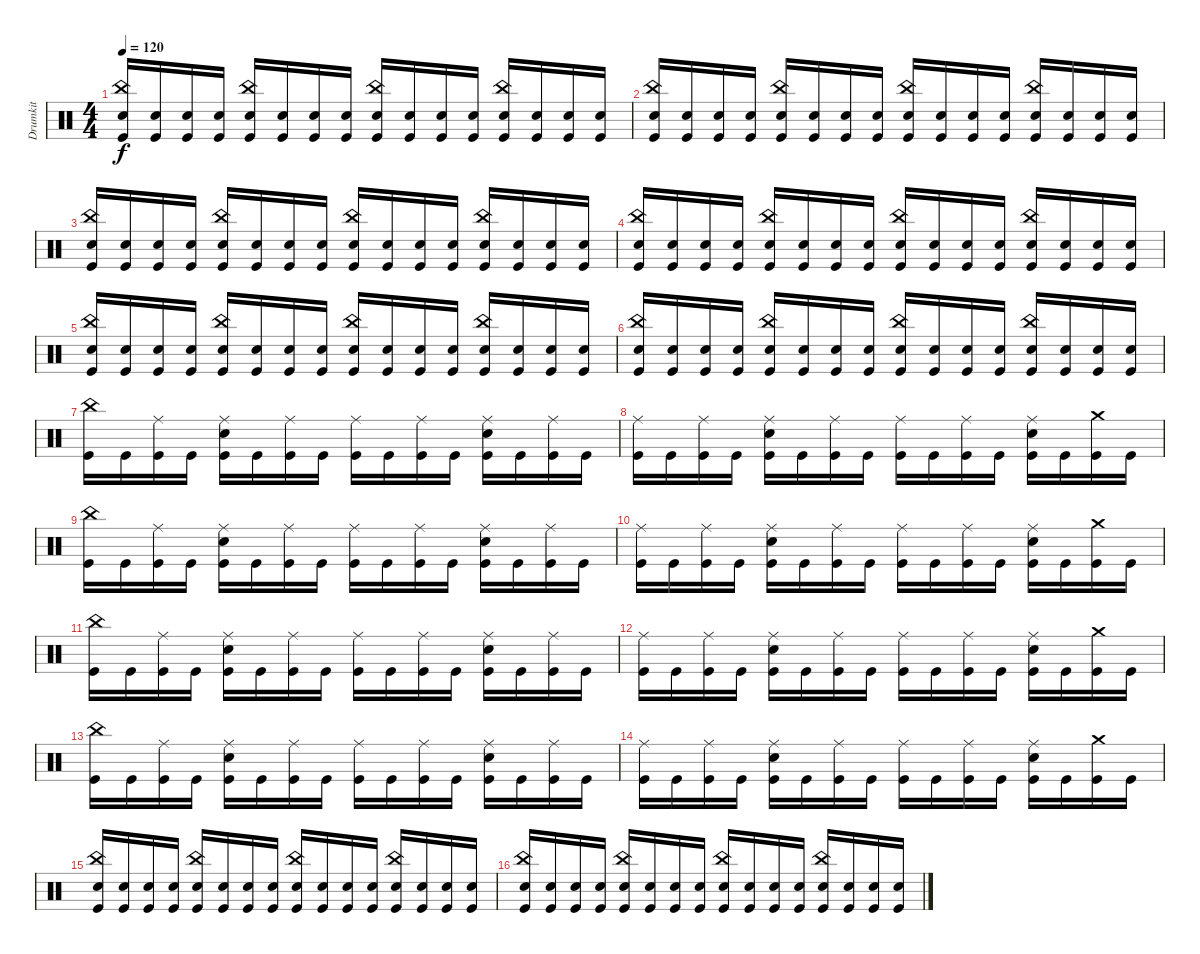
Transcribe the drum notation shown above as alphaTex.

\track ("Drumkit" "Drumkit") {instrument percussion}
\staff {score}
\articulation defaults
\ts (4 4)
\tempo 120
\clef neutral
\ks c
("Kick (hit)" "China (hit)" "Snare (hit) 2").16{dy f} ("Kick (hit)" "Snare (hit) 2").16 ("Kick (hit)" "Snare (hit) 2").16 ("Kick (hit)" "Snare (hit) 2").16 ("Kick (hit)" "China (hit)" "Snare (hit) 2").16 ("Kick (hit)" "Snare (hit) 2").16 ("Kick (hit)" "Snare (hit) 2").16 ("Kick (hit)" "Snare (hit) 2").16 ("Kick (hit)" "China (hit)" "Snare (hit) 2").16 ("Kick (hit)" "Snare (hit) 2").16 ("Kick (hit)" "Snare (hit) 2").16 ("Kick (hit)" "Snare (hit) 2").16 ("Kick (hit)" "China (hit)" "Snare (hit) 2").16 ("Kick (hit)" "Snare (hit) 2").16 ("Kick (hit)" "Snare (hit) 2").16 ("Kick (hit)" "Snare (hit) 2").16 |
("Kick (hit)" "China (hit)" "Snare (hit) 2").16 ("Kick (hit)" "Snare (hit) 2").16 ("Kick (hit)" "Snare (hit) 2").16 ("Kick (hit)" "Snare (hit) 2").16 ("Kick (hit)" "China (hit)" "Snare (hit) 2").16 ("Kick (hit)" "Snare (hit) 2").16 ("Kick (hit)" "Snare (hit) 2").16 ("Kick (hit)" "Snare (hit) 2").16 ("Kick (hit)" "China (hit)" "Snare (hit) 2").16 ("Kick (hit)" "Snare (hit) 2").16 ("Kick (hit)" "Snare (hit) 2").16 ("Kick (hit)" "Snare (hit) 2").16 ("Kick (hit)" "China (hit)" "Snare (hit) 2").16 ("Kick (hit)" "Snare (hit) 2").16 ("Kick (hit)" "Snare (hit) 2").16 ("Kick (hit)" "Snare (hit) 2").16 |
("Kick (hit)" "China (hit)" "Snare (hit) 2").16 ("Kick (hit)" "Snare (hit) 2").16 ("Kick (hit)" "Snare (hit) 2").16 ("Kick (hit)" "Snare (hit) 2").16 ("Kick (hit)" "China (hit)" "Snare (hit) 2").16 ("Kick (hit)" "Snare (hit) 2").16 ("Kick (hit)" "Snare (hit) 2").16 ("Kick (hit)" "Snare (hit) 2").16 ("Kick (hit)" "China (hit)" "Snare (hit) 2").16 ("Kick (hit)" "Snare (hit) 2").16 ("Kick (hit)" "Snare (hit) 2").16 ("Kick (hit)" "Snare (hit) 2").16 ("Kick (hit)" "China (hit)" "Snare (hit) 2").16 ("Kick (hit)" "Snare (hit) 2").16 ("Kick (hit)" "Snare (hit) 2").16 ("Kick (hit)" "Snare (hit) 2").16 |
("Kick (hit)" "China (hit)" "Snare (hit) 2").16 ("Kick (hit)" "Snare (hit) 2").16 ("Kick (hit)" "Snare (hit) 2").16 ("Kick (hit)" "Snare (hit) 2").16 ("Kick (hit)" "China (hit)" "Snare (hit) 2").16 ("Kick (hit)" "Snare (hit) 2").16 ("Kick (hit)" "Snare (hit) 2").16 ("Kick (hit)" "Snare (hit) 2").16 ("Kick (hit)" "China (hit)" "Snare (hit) 2").16 ("Kick (hit)" "Snare (hit) 2").16 ("Kick (hit)" "Snare (hit) 2").16 ("Kick (hit)" "Snare (hit) 2").16 ("Kick (hit)" "China (hit)" "Snare (hit) 2").16 ("Kick (hit)" "Snare (hit) 2").16 ("Kick (hit)" "Snare (hit) 2").16 ("Kick (hit)" "Snare (hit) 2").16 |
("Kick (hit)" "China (hit)" "Snare (hit) 2").16 ("Kick (hit)" "Snare (hit) 2").16 ("Kick (hit)" "Snare (hit) 2").16 ("Kick (hit)" "Snare (hit) 2").16 ("Kick (hit)" "China (hit)" "Snare (hit) 2").16 ("Kick (hit)" "Snare (hit) 2").16 ("Kick (hit)" "Snare (hit) 2").16 ("Kick (hit)" "Snare (hit) 2").16 ("Kick (hit)" "China (hit)" "Snare (hit) 2").16 ("Kick (hit)" "Snare (hit) 2").16 ("Kick (hit)" "Snare (hit) 2").16 ("Kick (hit)" "Snare (hit) 2").16 ("Kick (hit)" "China (hit)" "Snare (hit) 2").16 ("Kick (hit)" "Snare (hit) 2").16 ("Kick (hit)" "Snare (hit) 2").16 ("Kick (hit)" "Snare (hit) 2").16 |
("Kick (hit)" "China (hit)" "Snare (hit) 2").16 ("Kick (hit)" "Snare (hit) 2").16 ("Kick (hit)" "Snare (hit) 2").16 ("Kick (hit)" "Snare (hit) 2").16 ("Kick (hit)" "China (hit)" "Snare (hit) 2").16 ("Kick (hit)" "Snare (hit) 2").16 ("Kick (hit)" "Snare (hit) 2").16 ("Kick (hit)" "Snare (hit) 2").16 ("Kick (hit)" "China (hit)" "Snare (hit) 2").16 ("Kick (hit)" "Snare (hit) 2").16 ("Kick (hit)" "Snare (hit) 2").16 ("Kick (hit)" "Snare (hit) 2").16 ("Kick (hit)" "China (hit)" "Snare (hit) 2").16 ("Kick (hit)" "Snare (hit) 2").16 ("Kick (hit)" "Snare (hit) 2").16 ("Kick (hit)" "Snare (hit) 2").16 |
("Kick (hit)" "China (hit)").16 "Kick (hit)".16 ("Kick (hit)" "Ride (middle)").16 "Kick (hit)".16 ("Kick (hit)" "Ride (middle)" "Snare (hit) 2").16 "Kick (hit)".16 ("Kick (hit)" "Ride (middle)").16 "Kick (hit)".16 ("Kick (hit)" "Ride (middle)").16 "Kick (hit)".16 ("Kick (hit)" "Ride (middle)").16 "Kick (hit)".16 ("Kick (hit)" "Ride (middle)" "Snare (hit) 2").16 "Kick (hit)".16 ("Kick (hit)" "Ride (middle)").16 "Kick (hit)".16 |
("Kick (hit)" "Ride (middle)").16 "Kick (hit)".16 ("Kick (hit)" "Ride (middle)").16 "Kick (hit)".16 ("Kick (hit)" "Ride (middle)" "Snare (hit) 2").16 "Kick (hit)".16 ("Kick (hit)" "Ride (middle)").16 "Kick (hit)".16 ("Kick (hit)" "Ride (middle)").16 "Kick (hit)".16 ("Kick (hit)" "Ride (middle)").16 "Kick (hit)".16 ("Kick (hit)" "Snare (hit) 2" "Ride (middle)").16 "Kick (hit)".16 ("Kick (hit)" "Crash medium (hit)").16 "Kick (hit)".16 |
("Kick (hit)" "China (hit)").16 "Kick (hit)".16 ("Kick (hit)" "Ride (middle)").16 "Kick (hit)".16 ("Kick (hit)" "Ride (middle)" "Snare (hit) 2").16 "Kick (hit)".16 ("Kick (hit)" "Ride (middle)").16 "Kick (hit)".16 ("Kick (hit)" "Ride (middle)").16 "Kick (hit)".16 ("Kick (hit)" "Ride (middle)").16 "Kick (hit)".16 ("Kick (hit)" "Ride (middle)" "Snare (hit) 2").16 "Kick (hit)".16 ("Kick (hit)" "Ride (middle)").16 "Kick (hit)".16 |
("Kick (hit)" "Ride (middle)").16 "Kick (hit)".16 ("Kick (hit)" "Ride (middle)").16 "Kick (hit)".16 ("Kick (hit)" "Ride (middle)" "Snare (hit) 2").16 "Kick (hit)".16 ("Kick (hit)" "Ride (middle)").16 "Kick (hit)".16 ("Kick (hit)" "Ride (middle)").16 "Kick (hit)".16 ("Kick (hit)" "Ride (middle)").16 "Kick (hit)".16 ("Kick (hit)" "Snare (hit) 2" "Ride (middle)").16 "Kick (hit)".16 ("Kick (hit)" "Crash medium (hit)").16 "Kick (hit)".16 |
("Kick (hit)" "China (hit)").16 "Kick (hit)".16 ("Kick (hit)" "Ride (middle)").16 "Kick (hit)".16 ("Kick (hit)" "Ride (middle)" "Snare (hit) 2").16 "Kick (hit)".16 ("Kick (hit)" "Ride (middle)").16 "Kick (hit)".16 ("Kick (hit)" "Ride (middle)").16 "Kick (hit)".16 ("Kick (hit)" "Ride (middle)").16 "Kick (hit)".16 ("Kick (hit)" "Ride (middle)" "Snare (hit) 2").16 "Kick (hit)".16 ("Kick (hit)" "Ride (middle)").16 "Kick (hit)".16 |
("Kick (hit)" "Ride (middle)").16 "Kick (hit)".16 ("Kick (hit)" "Ride (middle)").16 "Kick (hit)".16 ("Kick (hit)" "Ride (middle)" "Snare (hit) 2").16 "Kick (hit)".16 ("Kick (hit)" "Ride (middle)").16 "Kick (hit)".16 ("Kick (hit)" "Ride (middle)").16 "Kick (hit)".16 ("Kick (hit)" "Ride (middle)").16 "Kick (hit)".16 ("Kick (hit)" "Snare (hit) 2" "Ride (middle)").16 "Kick (hit)".16 ("Kick (hit)" "Crash medium (hit)").16 "Kick (hit)".16 |
("Kick (hit)" "China (hit)").16 "Kick (hit)".16 ("Kick (hit)" "Ride (middle)").16 "Kick (hit)".16 ("Kick (hit)" "Ride (middle)" "Snare (hit) 2").16 "Kick (hit)".16 ("Kick (hit)" "Ride (middle)").16 "Kick (hit)".16 ("Kick (hit)" "Ride (middle)").16 "Kick (hit)".16 ("Kick (hit)" "Ride (middle)").16 "Kick (hit)".16 ("Kick (hit)" "Ride (middle)" "Snare (hit) 2").16 "Kick (hit)".16 ("Kick (hit)" "Ride (middle)").16 "Kick (hit)".16 |
("Kick (hit)" "Ride (middle)").16 "Kick (hit)".16 ("Kick (hit)" "Ride (middle)").16 "Kick (hit)".16 ("Kick (hit)" "Ride (middle)" "Snare (hit) 2").16 "Kick (hit)".16 ("Kick (hit)" "Ride (middle)").16 "Kick (hit)".16 ("Kick (hit)" "Ride (middle)").16 "Kick (hit)".16 ("Kick (hit)" "Ride (middle)").16 "Kick (hit)".16 ("Kick (hit)" "Snare (hit) 2" "Ride (middle)").16 "Kick (hit)".16 ("Kick (hit)" "Crash medium (hit)").16 "Kick (hit)".16 |
("Kick (hit)" "China (hit)" "Snare (hit) 2").16 ("Kick (hit)" "Snare (hit) 2").16 ("Kick (hit)" "Snare (hit) 2").16 ("Kick (hit)" "Snare (hit) 2").16 ("Kick (hit)" "China (hit)" "Snare (hit) 2").16 ("Kick (hit)" "Snare (hit) 2").16 ("Kick (hit)" "Snare (hit) 2").16 ("Kick (hit)" "Snare (hit) 2").16 ("Kick (hit)" "China (hit)" "Snare (hit) 2").16 ("Kick (hit)" "Snare (hit) 2").16 ("Kick (hit)" "Snare (hit) 2").16 ("Kick (hit)" "Snare (hit) 2").16 ("Kick (hit)" "China (hit)" "Snare (hit) 2").16 ("Kick (hit)" "Snare (hit) 2").16 ("Kick (hit)" "Snare (hit) 2").16 ("Kick (hit)" "Snare (hit) 2").16 |
("Kick (hit)" "China (hit)" "Snare (hit) 2").16 ("Kick (hit)" "Snare (hit) 2").16 ("Kick (hit)" "Snare (hit) 2").16 ("Kick (hit)" "Snare (hit) 2").16 ("Kick (hit)" "China (hit)" "Snare (hit) 2").16 ("Kick (hit)" "Snare (hit) 2").16 ("Kick (hit)" "Snare (hit) 2").16 ("Kick (hit)" "Snare (hit) 2").16 ("Kick (hit)" "China (hit)" "Snare (hit) 2").16 ("Kick (hit)" "Snare (hit) 2").16 ("Kick (hit)" "Snare (hit) 2").16 ("Kick (hit)" "Snare (hit) 2").16 ("Kick (hit)" "China (hit)" "Snare (hit) 2").16 ("Kick (hit)" "Snare (hit) 2").16 ("Kick (hit)" "Snare (hit) 2").16 ("Kick (hit)" "Snare (hit) 2").16
